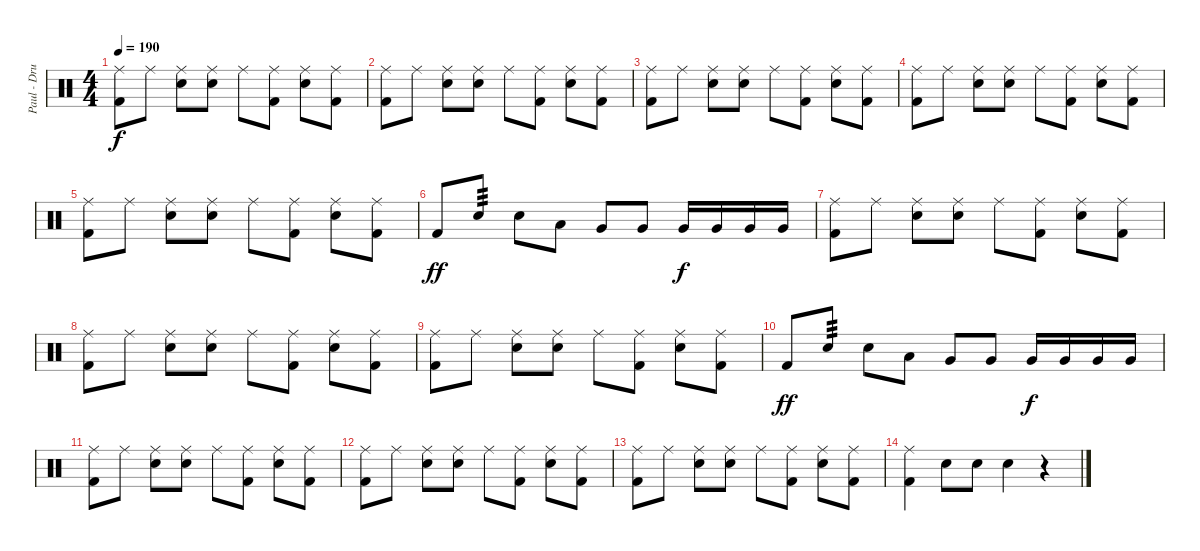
\track ("Paul - Drums" "Paul - Dru") {instrument percussion}
\staff {score}
\articulation defaults
\ts (4 4)
\tempo 190
\clef neutral
\ks c
("Ride (middle)" "Kick (hit) 2").8{dy f} "Ride (middle)".8 ("Ride (middle)" "Electric Snare (hit)").8 ("Ride (middle)" "Electric Snare (hit)").8 "Ride (middle)".8 ("Ride (middle)" "Kick (hit) 2").8 ("Ride (middle)" "Electric Snare (hit)").8 ("Ride (middle)" "Kick (hit) 2").8 |
("Ride (middle)" "Kick (hit) 2").8 "Ride (middle)".8 ("Ride (middle)" "Electric Snare (hit)").8 ("Ride (middle)" "Electric Snare (hit)").8 "Ride (middle)".8 ("Ride (middle)" "Kick (hit) 2").8 ("Ride (middle)" "Electric Snare (hit)").8 ("Ride (middle)" "Kick (hit) 2").8 |
("Ride (middle)" "Kick (hit) 2").8 "Ride (middle)".8 ("Ride (middle)" "Electric Snare (hit)").8 ("Ride (middle)" "Electric Snare (hit)").8 "Ride (middle)".8 ("Ride (middle)" "Kick (hit) 2").8 ("Ride (middle)" "Electric Snare (hit)").8 ("Ride (middle)" "Kick (hit) 2").8 |
("Ride (middle)" "Kick (hit) 2").8 "Ride (middle)".8 ("Ride (middle)" "Electric Snare (hit)").8 ("Ride (middle)" "Electric Snare (hit)").8 "Ride (middle)".8 ("Ride (middle)" "Kick (hit) 2").8 ("Ride (middle)" "Electric Snare (hit)").8 ("Ride (middle)" "Kick (hit) 2").8 |
("Ride (middle)" "Kick (hit) 2").8 "Ride (middle)".8 ("Ride (middle)" "Electric Snare (hit)").8 ("Ride (middle)" "Electric Snare (hit)").8 "Ride (middle)".8 ("Ride (middle)" "Kick (hit) 2").8 ("Ride (middle)" "Electric Snare (hit)").8 ("Ride (middle)" "Kick (hit) 2").8 |
"Kick (hit) 2".8{dy ff} "Electric Snare (hit)".8{tp 3} "Electric Snare (hit)".8 "Low Tom (hit)".8 "Very Low Tom (hit)".8 "Very Low Tom (hit)".8 "Very Low Tom (hit)".16{dy f} "Very Low Tom (hit)".16 "Very Low Tom (hit)".16 "Very Low Tom (hit)".16 |
("Ride (middle)" "Kick (hit) 2").8 "Ride (middle)".8 ("Ride (middle)" "Electric Snare (hit)").8 ("Ride (middle)" "Electric Snare (hit)").8 "Ride (middle)".8 ("Ride (middle)" "Kick (hit) 2").8 ("Ride (middle)" "Electric Snare (hit)").8 ("Ride (middle)" "Kick (hit) 2").8 |
("Ride (middle)" "Kick (hit) 2").8 "Ride (middle)".8 ("Ride (middle)" "Electric Snare (hit)").8 ("Ride (middle)" "Electric Snare (hit)").8 "Ride (middle)".8 ("Ride (middle)" "Kick (hit) 2").8 ("Ride (middle)" "Electric Snare (hit)").8 ("Ride (middle)" "Kick (hit) 2").8 |
("Ride (middle)" "Kick (hit) 2").8 "Ride (middle)".8 ("Ride (middle)" "Electric Snare (hit)").8 ("Ride (middle)" "Electric Snare (hit)").8 "Ride (middle)".8 ("Ride (middle)" "Kick (hit) 2").8 ("Ride (middle)" "Electric Snare (hit)").8 ("Ride (middle)" "Kick (hit) 2").8 |
"Kick (hit) 2".8{dy ff} "Electric Snare (hit)".8{tp 3} "Electric Snare (hit)".8 "Low Tom (hit)".8 "Very Low Tom (hit)".8 "Very Low Tom (hit)".8 "Very Low Tom (hit)".16{dy f} "Very Low Tom (hit)".16 "Very Low Tom (hit)".16 "Very Low Tom (hit)".16 |
("Ride (middle)" "Kick (hit) 2").8 "Ride (middle)".8 ("Ride (middle)" "Electric Snare (hit)").8 ("Ride (middle)" "Electric Snare (hit)").8 "Ride (middle)".8 ("Ride (middle)" "Kick (hit) 2").8 ("Ride (middle)" "Electric Snare (hit)").8 ("Ride (middle)" "Kick (hit) 2").8 |
("Ride (middle)" "Kick (hit) 2").8 "Ride (middle)".8 ("Ride (middle)" "Electric Snare (hit)").8 ("Ride (middle)" "Electric Snare (hit)").8 "Ride (middle)".8 ("Ride (middle)" "Kick (hit) 2").8 ("Ride (middle)" "Electric Snare (hit)").8 ("Ride (middle)" "Kick (hit) 2").8 |
("Ride (middle)" "Kick (hit) 2").8 "Ride (middle)".8 ("Ride (middle)" "Electric Snare (hit)").8 ("Ride (middle)" "Electric Snare (hit)").8 "Ride (middle)".8 ("Ride (middle)" "Kick (hit) 2").8 ("Ride (middle)" "Electric Snare (hit)").8 ("Ride (middle)" "Kick (hit) 2").8 |
("Ride (middle)" "Kick (hit) 2").4 "Electric Snare (hit)".8 "Electric Snare (hit)".8 "Electric Snare (hit)".4 r.4
